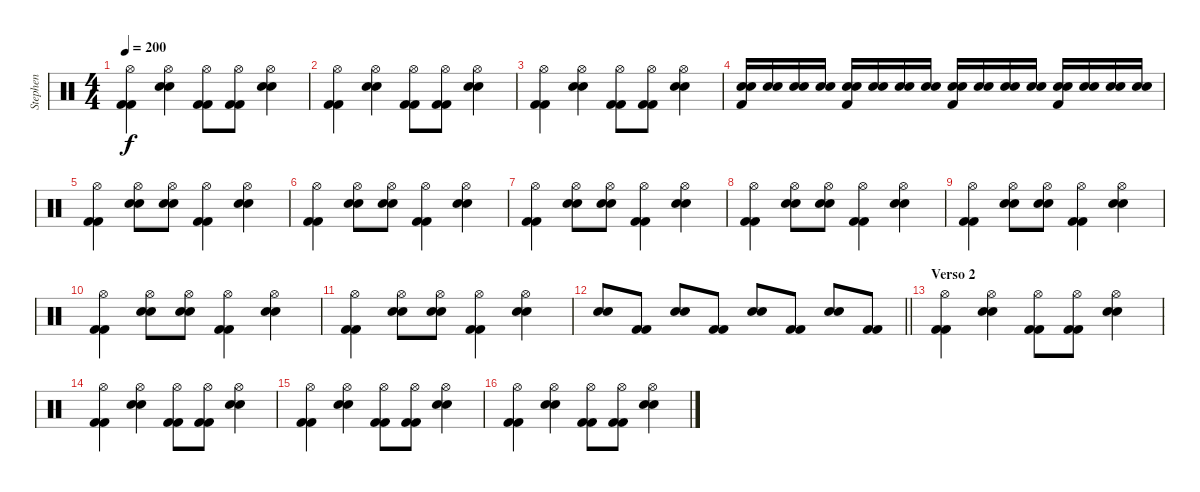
\track ("Stephen" "Stephen") {instrument percussion}
\staff {score}
\articulation defaults
\ts (4 4)
\tempo 200
\clef neutral
\ks c
("Hi-Hat (open)" "Kick (hit) 2" "Kick (hit) 2").4{dy f} ("Hi-Hat (open)" "Electric Snare (hit)" "Electric Snare (hit)").4 ("Hi-Hat (open)" "Kick (hit) 2" "Kick (hit) 2").8 ("Hi-Hat (open)" "Kick (hit) 2" "Kick (hit) 2").8 ("Hi-Hat (open)" "Electric Snare (hit)" "Electric Snare (hit)").4 |
("Hi-Hat (open)" "Kick (hit) 2" "Kick (hit) 2").4 ("Hi-Hat (open)" "Electric Snare (hit)" "Electric Snare (hit)").4 ("Hi-Hat (open)" "Kick (hit) 2" "Kick (hit) 2").8 ("Hi-Hat (open)" "Kick (hit) 2" "Kick (hit) 2").8 ("Hi-Hat (open)" "Electric Snare (hit)" "Electric Snare (hit)").4 |
("Hi-Hat (open)" "Kick (hit) 2" "Kick (hit) 2").4 ("Hi-Hat (open)" "Electric Snare (hit)" "Electric Snare (hit)").4 ("Hi-Hat (open)" "Kick (hit) 2" "Kick (hit) 2").8 ("Hi-Hat (open)" "Kick (hit) 2" "Kick (hit) 2").8 ("Hi-Hat (open)" "Electric Snare (hit)" "Electric Snare (hit)").4 |
("Electric Snare (hit)" "Kick (hit) 2" "Electric Snare (hit)").16 ("Electric Snare (hit)" "Electric Snare (hit)").16 ("Electric Snare (hit)" "Electric Snare (hit)").16 ("Electric Snare (hit)" "Electric Snare (hit)").16 ("Electric Snare (hit)" "Kick (hit) 2" "Electric Snare (hit)").16 ("Electric Snare (hit)" "Electric Snare (hit)").16 ("Electric Snare (hit)" "Electric Snare (hit)").16 ("Electric Snare (hit)" "Electric Snare (hit)").16 ("Electric Snare (hit)" "Kick (hit) 2" "Electric Snare (hit)").16 ("Electric Snare (hit)" "Electric Snare (hit)").16 ("Electric Snare (hit)" "Electric Snare (hit)").16 ("Electric Snare (hit)" "Electric Snare (hit)").16 ("Electric Snare (hit)" "Kick (hit) 2" "Electric Snare (hit)").16 ("Electric Snare (hit)" "Electric Snare (hit)").16 ("Electric Snare (hit)" "Electric Snare (hit)").16 ("Electric Snare (hit)" "Electric Snare (hit)").16 |
("Hi-Hat (open)" "Kick (hit) 2" "Kick (hit) 2").4 ("Hi-Hat (open)" "Electric Snare (hit)" "Electric Snare (hit)").8 ("Hi-Hat (open)" "Electric Snare (hit)" "Electric Snare (hit)").8 ("Hi-Hat (open)" "Kick (hit) 2" "Kick (hit) 2").4 ("Hi-Hat (open)" "Electric Snare (hit)" "Electric Snare (hit)").4 |
("Hi-Hat (open)" "Kick (hit) 2" "Kick (hit) 2").4 ("Hi-Hat (open)" "Electric Snare (hit)" "Electric Snare (hit)").8 ("Hi-Hat (open)" "Electric Snare (hit)" "Electric Snare (hit)").8 ("Hi-Hat (open)" "Kick (hit) 2" "Kick (hit) 2").4 ("Hi-Hat (open)" "Electric Snare (hit)" "Electric Snare (hit)").4 |
("Hi-Hat (open)" "Kick (hit) 2" "Kick (hit) 2").4 ("Hi-Hat (open)" "Electric Snare (hit)" "Electric Snare (hit)").8 ("Hi-Hat (open)" "Electric Snare (hit)" "Electric Snare (hit)").8 ("Hi-Hat (open)" "Kick (hit) 2" "Kick (hit) 2").4 ("Hi-Hat (open)" "Electric Snare (hit)" "Electric Snare (hit)").4 |
("Hi-Hat (open)" "Kick (hit) 2" "Kick (hit) 2").4 ("Hi-Hat (open)" "Electric Snare (hit)" "Electric Snare (hit)").8 ("Hi-Hat (open)" "Electric Snare (hit)" "Electric Snare (hit)").8 ("Hi-Hat (open)" "Kick (hit) 2" "Kick (hit) 2").4 ("Hi-Hat (open)" "Electric Snare (hit)" "Electric Snare (hit)").4 |
("Hi-Hat (open)" "Kick (hit) 2" "Kick (hit) 2").4 ("Hi-Hat (open)" "Electric Snare (hit)" "Electric Snare (hit)").8 ("Hi-Hat (open)" "Electric Snare (hit)" "Electric Snare (hit)").8 ("Hi-Hat (open)" "Kick (hit) 2" "Kick (hit) 2").4 ("Hi-Hat (open)" "Electric Snare (hit)" "Electric Snare (hit)").4 |
("Hi-Hat (open)" "Kick (hit) 2" "Kick (hit) 2").4 ("Hi-Hat (open)" "Electric Snare (hit)" "Electric Snare (hit)").8 ("Hi-Hat (open)" "Electric Snare (hit)" "Electric Snare (hit)").8 ("Hi-Hat (open)" "Kick (hit) 2" "Kick (hit) 2").4 ("Hi-Hat (open)" "Electric Snare (hit)" "Electric Snare (hit)").4 |
("Hi-Hat (open)" "Kick (hit) 2" "Kick (hit) 2").4 ("Hi-Hat (open)" "Electric Snare (hit)" "Electric Snare (hit)").8 ("Hi-Hat (open)" "Electric Snare (hit)" "Electric Snare (hit)").8 ("Hi-Hat (open)" "Kick (hit) 2" "Kick (hit) 2").4 ("Hi-Hat (open)" "Electric Snare (hit)" "Electric Snare (hit)").4 |
\barLineRight lightlight
("Electric Snare (hit)" "Electric Snare (hit)").8 ("Kick (hit) 2" "Kick (hit) 2").8 ("Electric Snare (hit)" "Electric Snare (hit)").8 ("Kick (hit) 2" "Kick (hit) 2").8 ("Electric Snare (hit)" "Electric Snare (hit)").8 ("Kick (hit) 2" "Kick (hit) 2").8 ("Electric Snare (hit)" "Electric Snare (hit)").8 ("Kick (hit) 2" "Kick (hit) 2").8 |
\section ("" "Verso 2")
("Hi-Hat (open)" "Kick (hit) 2" "Kick (hit) 2").4 ("Hi-Hat (open)" "Electric Snare (hit)" "Electric Snare (hit)").4 ("Hi-Hat (open)" "Kick (hit) 2" "Kick (hit) 2").8 ("Hi-Hat (open)" "Kick (hit) 2" "Kick (hit) 2").8 ("Hi-Hat (open)" "Electric Snare (hit)" "Electric Snare (hit)").4 |
("Hi-Hat (open)" "Kick (hit) 2" "Kick (hit) 2").4 ("Hi-Hat (open)" "Electric Snare (hit)" "Electric Snare (hit)").4 ("Hi-Hat (open)" "Kick (hit) 2" "Kick (hit) 2").8 ("Hi-Hat (open)" "Kick (hit) 2" "Kick (hit) 2").8 ("Hi-Hat (open)" "Electric Snare (hit)" "Electric Snare (hit)").4 |
("Hi-Hat (open)" "Kick (hit) 2" "Kick (hit) 2").4 ("Hi-Hat (open)" "Electric Snare (hit)" "Electric Snare (hit)").4 ("Hi-Hat (open)" "Kick (hit) 2" "Kick (hit) 2").8 ("Hi-Hat (open)" "Kick (hit) 2" "Kick (hit) 2").8 ("Hi-Hat (open)" "Electric Snare (hit)" "Electric Snare (hit)").4 |
("Hi-Hat (open)" "Kick (hit) 2" "Kick (hit) 2").4 ("Hi-Hat (open)" "Electric Snare (hit)" "Electric Snare (hit)").4 ("Hi-Hat (open)" "Kick (hit) 2" "Kick (hit) 2").8 ("Hi-Hat (open)" "Kick (hit) 2" "Kick (hit) 2").8 ("Hi-Hat (open)" "Electric Snare (hit)" "Electric Snare (hit)").4
